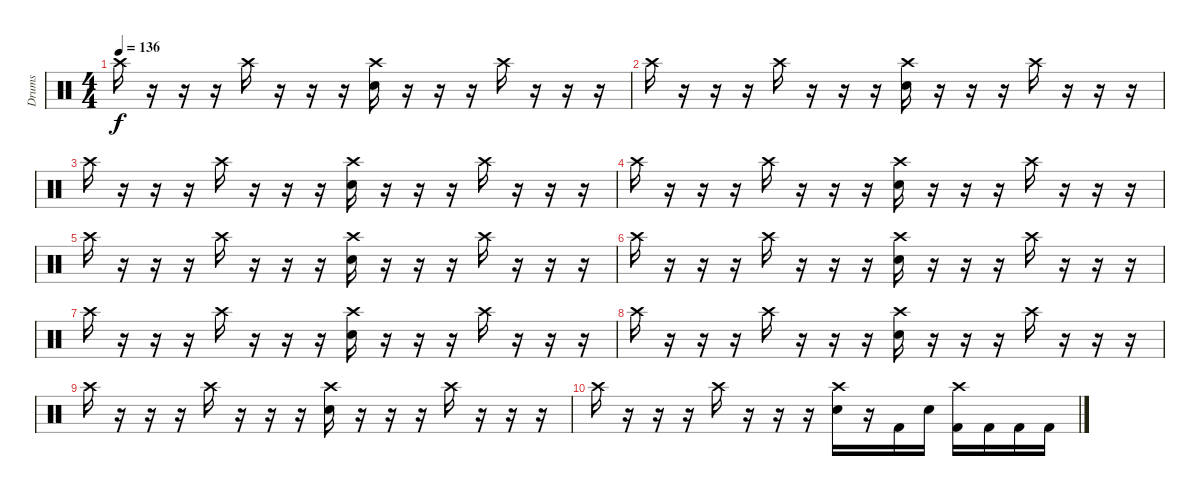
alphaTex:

\track ("Drums" "Drums") {instrument percussion}
\staff {score}
\articulation defaults
\ts (4 4)
\tempo 136
\clef neutral
\ks c "Crash high (hit)".16{dy f}
r.16 r.16 r.16 "Crash high (hit)".16 r.16 r.16 r.16 ("Crash high (hit)" "Electric Snare (hit)").16 r.16 r.16 r.16 "Crash high (hit)".16 r.16 r.16 r.16 |
"Crash high (hit)".16 r.16 r.16 r.16 "Crash high (hit)".16 r.16 r.16 r.16 ("Crash high (hit)" "Electric Snare (hit)").16 r.16 r.16 r.16 "Crash high (hit)".16 r.16 r.16 r.16 |
"Crash high (hit)".16 r.16 r.16 r.16 "Crash high (hit)".16 r.16 r.16 r.16 ("Crash high (hit)" "Electric Snare (hit)").16 r.16 r.16 r.16 "Crash high (hit)".16 r.16 r.16 r.16 |
"Crash high (hit)".16 r.16 r.16 r.16 "Crash high (hit)".16 r.16 r.16 r.16 ("Crash high (hit)" "Electric Snare (hit)").16 r.16 r.16 r.16 "Crash high (hit)".16 r.16 r.16 r.16 |
"Crash high (hit)".16 r.16 r.16 r.16 "Crash high (hit)".16 r.16 r.16 r.16 ("Crash high (hit)" "Electric Snare (hit)").16 r.16 r.16 r.16 "Crash high (hit)".16 r.16 r.16 r.16 |
"Crash high (hit)".16 r.16 r.16 r.16 "Crash high (hit)".16 r.16 r.16 r.16 ("Crash high (hit)" "Electric Snare (hit)").16 r.16 r.16 r.16 "Crash high (hit)".16 r.16 r.16 r.16 |
"Crash high (hit)".16 r.16 r.16 r.16 "Crash high (hit)".16 r.16 r.16 r.16 ("Crash high (hit)" "Electric Snare (hit)").16 r.16 r.16 r.16 "Crash high (hit)".16 r.16 r.16 r.16 |
"Crash high (hit)".16 r.16 r.16 r.16 "Crash high (hit)".16 r.16 r.16 r.16 ("Crash high (hit)" "Electric Snare (hit)").16 r.16 r.16 r.16 "Crash high (hit)".16 r.16 r.16 r.16 |
"Crash high (hit)".16 r.16 r.16 r.16 "Crash high (hit)".16 r.16 r.16 r.16 ("Crash high (hit)" "Electric Snare (hit)").16 r.16 r.16 r.16 "Crash high (hit)".16 r.16 r.16 r.16 |
"Crash high (hit)".16 r.16 r.16 r.16 "Crash high (hit)".16 r.16 r.16 r.16 ("Crash high (hit)" "Electric Snare (hit)").16 r.16 "Kick (hit) 2".16 "Electric Snare (hit)".16 ("Crash high (hit)" "Kick (hit) 2").16 "Kick (hit) 2".16 "Kick (hit) 2".16 "Kick (hit) 2".16
